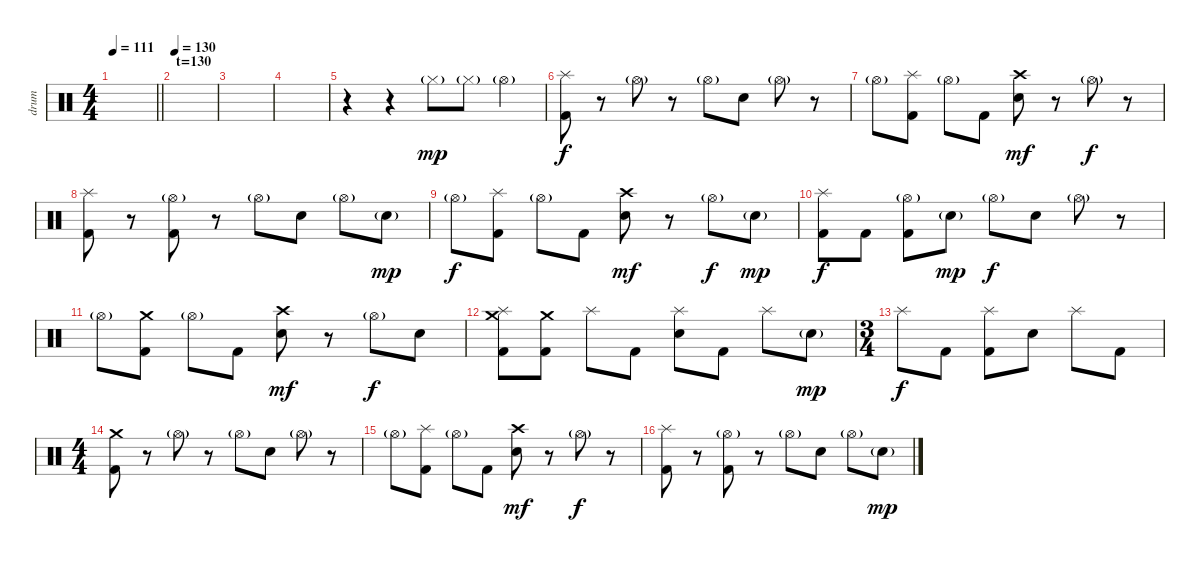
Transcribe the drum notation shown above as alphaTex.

\track ("drum" "drum") {instrument percussion}
\staff {score}
\articulation defaults
\ts (4 4)
\tempo 111
\clef neutral
\barLineRight lightlight
\ks c
|
\section ("" "t=130")
\tempo 130
|
|
|
r.4 r.4 "Hi-Hat (closed)"{g}.8{dy mp} "Hi-Hat (closed)"{g}.8 "Hi-Hat (open)"{g}.4 |
("Splash (hit)" "Kick (hit) 2").8{dy f} r.8 "Hi-Hat (open)"{g}.8 r.8 "Hi-Hat (open)"{g}.8 "Electric Snare (hit)".8 "Hi-Hat (open)"{g}.8 r.8 |
"Hi-Hat (open)"{g}.8 ("Splash (hit)" "Kick (hit) 2").8 "Hi-Hat (open)"{g}.8 "Kick (hit) 2".8 ("Crash high (hit)" "Electric Snare (hit)").8{dy mf} r.8 "Hi-Hat (open)"{g}.8{dy f} r.8 |
("Splash (hit)" "Kick (hit) 2").8 r.8 ("Hi-Hat (open)"{g} "Kick (hit) 2").8 r.8 "Hi-Hat (open)"{g}.8 "Electric Snare (hit)".8 "Hi-Hat (open)"{g}.8 "Electric Snare (hit)"{g}.8{dy mp} |
"Hi-Hat (open)"{g}.8{dy f} ("Splash (hit)" "Kick (hit) 2").8 "Hi-Hat (open)"{g}.8 "Kick (hit) 2".8 ("Crash high (hit)" "Electric Snare (hit)").8{dy mf} r.8 "Hi-Hat (open)"{g}.8{dy f} "Electric Snare (hit)"{g}.8{dy mp} |
("Splash (hit)" "Kick (hit) 2").8{dy f} "Kick (hit) 2".8 ("Hi-Hat (open)"{g} "Kick (hit) 2").8 "Electric Snare (hit)"{g}.8{dy mp} "Hi-Hat (open)"{g}.8{dy f} "Electric Snare (hit)".8 "Hi-Hat (open)"{g}.8 r.8 |
"Hi-Hat (open)"{g}.8 ("Crash medium (hit)" "Kick (hit) 2").8 "Hi-Hat (open)"{g}.8 "Kick (hit) 2".8 ("Crash high (hit)" "Electric Snare (hit)").8{dy mf} r.8 "Hi-Hat (open)"{g}.8{dy f} "Electric Snare (hit)".8 |
("Crash medium (hit)" "Splash (hit)" "Kick (hit) 2").8 ("Crash medium (hit)" "Kick (hit) 2").8 "Splash (hit)".8 "Kick (hit) 2".8 ("Splash (hit)" "Electric Snare (hit)").8 "Kick (hit) 2".8 "Splash (hit)".8 "Electric Snare (hit)"{g}.8{dy mp} |
\ts (3 4)
"Splash (hit)".8{dy f} "Kick (hit) 2".8 ("Splash (hit)" "Kick (hit) 2").8 "Electric Snare (hit)".8 "Splash (hit)".8 "Kick (hit) 2".8 |
\ts (4 4)
("Crash medium (hit)" "Kick (hit) 2").8 r.8 "Hi-Hat (open)"{g}.8 r.8 "Hi-Hat (open)"{g}.8 "Electric Snare (hit)".8 "Hi-Hat (open)"{g}.8 r.8 |
"Hi-Hat (open)"{g}.8 ("Splash (hit)" "Kick (hit) 2").8 "Hi-Hat (open)"{g}.8 "Kick (hit) 2".8 ("Crash high (hit)" "Electric Snare (hit)").8{dy mf} r.8 "Hi-Hat (open)"{g}.8{dy f} r.8 |
("Splash (hit)" "Kick (hit) 2").8 r.8 ("Hi-Hat (open)"{g} "Kick (hit) 2").8 r.8 "Hi-Hat (open)"{g}.8 "Electric Snare (hit)".8 "Hi-Hat (open)"{g}.8 "Electric Snare (hit)"{g}.8{dy mp}
